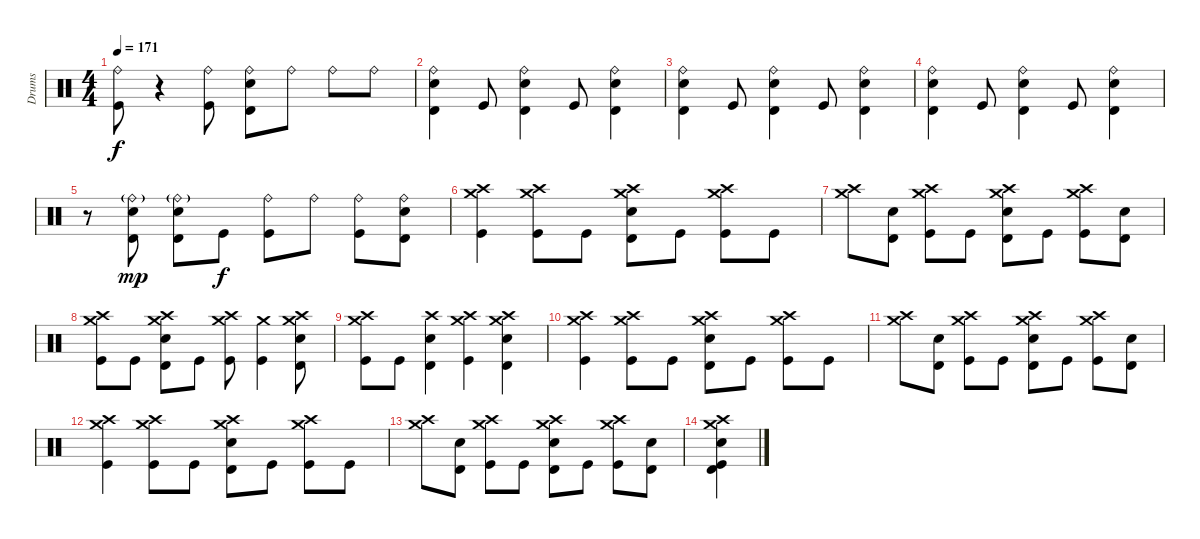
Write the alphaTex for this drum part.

\track ("Drums" "Drums") {instrument percussion}
\staff {score}
\articulation defaults
\ts (4 4)
\tempo 171
\clef neutral
\ks c
("Ride (bell)" "Kick (hit)").8{dy f} r.4 ("Ride (bell)" "Kick (hit)").8 ("Ride (bell)" "Timbale high (hit)" "Electric Snare (hit)").8 "Ride (bell)".8 "Ride (bell)".8 "Ride (bell)".8 |
("Ride (bell)" "Electric Snare (hit)" "Timbale high (hit)").4 "Kick (hit)".8 ("Ride (bell)" "Electric Snare (hit)" "Timbale high (hit)").4 "Kick (hit)".8 ("Ride (bell)" "Electric Snare (hit)" "Timbale high (hit)").4 |
("Ride (bell)" "Electric Snare (hit)" "Timbale high (hit)").4 "Kick (hit)".8 ("Ride (bell)" "Electric Snare (hit)" "Timbale high (hit)").4 "Kick (hit)".8 ("Ride (bell)" "Electric Snare (hit)" "Timbale high (hit)").4 |
("Ride (bell)" "Electric Snare (hit)" "Timbale high (hit)").4 "Kick (hit)".8 ("Ride (bell)" "Electric Snare (hit)" "Timbale high (hit)").4 "Kick (hit)".8 ("Ride (bell)" "Electric Snare (hit)" "Timbale high (hit)").4 |
r.8 ("Timbale high (hit)" "Electric Snare (hit)" "Ride (bell)"{g}).8{dy mp} ("Timbale high (hit)" "Electric Snare (hit)" "Ride (bell)"{g}).8 "Kick (hit)".8{dy f} ("Ride (bell)" "Kick (hit)").8 "Ride (bell)".8 ("Ride (bell)" "Kick (hit)").8 ("Ride (bell)" "Electric Snare (hit)" "Timbale high (hit)").8 |
("Crash high (hit)" "Crash medium (hit)" "Kick (hit)").4{volume 16} ("Crash high (hit)" "Crash medium (hit)" "Kick (hit)").8 "Kick (hit)".8 ("Timbale high (hit)" "Electric Snare (hit)" "Crash high (hit)" "Crash medium (hit)").8 "Kick (hit)".8 ("Crash high (hit)" "Crash medium (hit)" "Kick (hit)").8 "Kick (hit)".8 |
("Crash high (hit)" "Crash medium (hit)").8 ("Electric Snare (hit)" "Timbale high (hit)").8 ("Crash high (hit)" "Crash medium (hit)" "Kick (hit)").8 "Kick (hit)".8 ("Timbale high (hit)" "Electric Snare (hit)" "Crash medium (hit)" "Crash high (hit)").8 "Kick (hit)".8 ("Crash high (hit)" "Crash medium (hit)" "Kick (hit)").8 ("Electric Snare (hit)" "Timbale high (hit)").8 |
("Crash high (hit)" "Crash medium (hit)" "Kick (hit)").8 "Kick (hit)".8 ("Electric Snare (hit)" "Timbale high (hit)" "Crash high (hit)" "Crash medium (hit)").8 "Kick (hit)".8 ("Crash high (hit)" "Crash medium (hit)" "Kick (hit)").8 ("Crash medium (hit)" "Kick (hit)").4 ("Electric Snare (hit)" "Timbale high (hit)" "Crash medium (hit)" "Crash high (hit)").8 |
("Crash high (hit)" "Crash medium (hit)" "Kick (hit)").8 "Kick (hit)".8 ("Timbale high (hit)" "Electric Snare (hit)" "Crash high (hit)").4 ("Crash medium (hit)" "Crash high (hit)" "Kick (hit)").4 ("Crash high (hit)" "Crash medium (hit)" "Timbale high (hit)" "Electric Snare (hit)").4 |
("Crash high (hit)" "Crash medium (hit)" "Kick (hit)").4 ("Crash high (hit)" "Crash medium (hit)" "Kick (hit)").8 "Kick (hit)".8 ("Timbale high (hit)" "Electric Snare (hit)" "Crash high (hit)" "Crash medium (hit)").8 "Kick (hit)".8 ("Crash high (hit)" "Crash medium (hit)" "Kick (hit)").8 "Kick (hit)".8 |
("Crash high (hit)" "Crash medium (hit)").8 ("Electric Snare (hit)" "Timbale high (hit)").8 ("Crash high (hit)" "Crash medium (hit)" "Kick (hit)").8 "Kick (hit)".8 ("Timbale high (hit)" "Electric Snare (hit)" "Crash medium (hit)" "Crash high (hit)").8 "Kick (hit)".8 ("Crash high (hit)" "Crash medium (hit)" "Kick (hit)").8 ("Electric Snare (hit)" "Timbale high (hit)").8 |
("Crash high (hit)" "Crash medium (hit)" "Kick (hit)").4 ("Crash high (hit)" "Crash medium (hit)" "Kick (hit)").8 "Kick (hit)".8 ("Timbale high (hit)" "Electric Snare (hit)" "Crash high (hit)" "Crash medium (hit)").8 "Kick (hit)".8 ("Crash high (hit)" "Crash medium (hit)" "Kick (hit)").8 "Kick (hit)".8 |
("Crash high (hit)" "Crash medium (hit)").8 ("Electric Snare (hit)" "Timbale high (hit)").8 ("Crash high (hit)" "Crash medium (hit)" "Kick (hit)").8 "Kick (hit)".8 ("Timbale high (hit)" "Electric Snare (hit)" "Crash medium (hit)" "Crash high (hit)").8 "Kick (hit)".8 ("Crash high (hit)" "Crash medium (hit)" "Kick (hit)").8 ("Electric Snare (hit)" "Timbale high (hit)").8 |
("Crash medium (hit)" "Electric Snare (hit)" "Timbale high (hit)" "Crash high (hit)" "Kick (hit)").4
